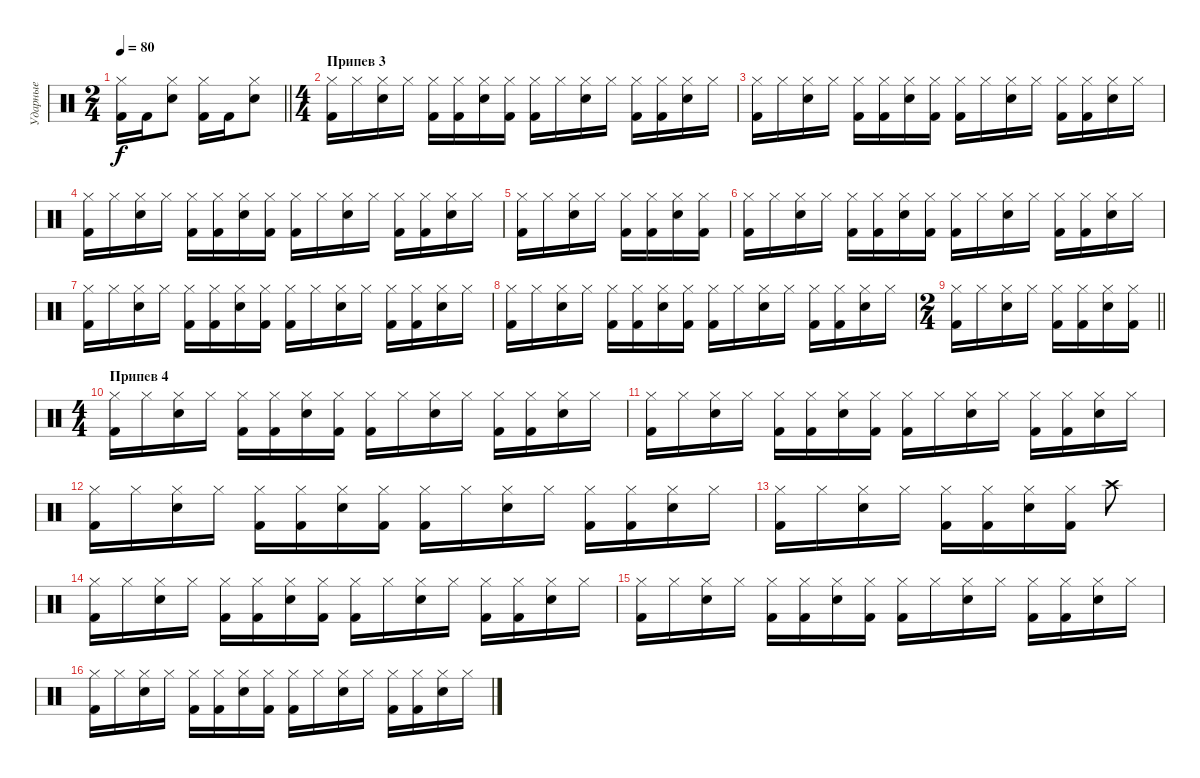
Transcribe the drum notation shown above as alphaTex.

\track ("Ударные" "Ударные") {instrument percussion}
\staff {score}
\articulation defaults
\ts (2 4)
\tempo 80
\clef neutral
\barLineRight lightlight
\ks c
("Hi-Hat (closed)" "Kick (hit) 2").16{dy f} "Kick (hit) 2".16 ("Electric Snare (hit)" "Hi-Hat (closed)").8 ("Hi-Hat (closed)" "Kick (hit) 2").16 "Kick (hit) 2".16 ("Electric Snare (hit)" "Hi-Hat (closed)").8 |
\ts (4 4)
\section ("" "Припев 3")
("Hi-Hat (closed)" "Kick (hit) 2").16 "Hi-Hat (closed)".16 ("Hi-Hat (closed)" "Electric Snare (hit)").16 "Hi-Hat (closed)".16 ("Hi-Hat (closed)" "Kick (hit) 2").16 ("Hi-Hat (closed)" "Kick (hit) 2").16 ("Hi-Hat (closed)" "Electric Snare (hit)").16 ("Hi-Hat (closed)" "Kick (hit) 2").16 ("Hi-Hat (closed)" "Kick (hit) 2").16 "Hi-Hat (closed)".16 ("Hi-Hat (closed)" "Electric Snare (hit)").16 "Hi-Hat (closed)".16 ("Hi-Hat (closed)" "Kick (hit) 2").16 ("Hi-Hat (closed)" "Kick (hit) 2").16 ("Hi-Hat (closed)" "Electric Snare (hit)").16 "Hi-Hat (closed)".16 |
("Hi-Hat (closed)" "Kick (hit) 2").16 "Hi-Hat (closed)".16 ("Hi-Hat (closed)" "Electric Snare (hit)").16 "Hi-Hat (closed)".16 ("Hi-Hat (closed)" "Kick (hit) 2").16 ("Hi-Hat (closed)" "Kick (hit) 2").16 ("Hi-Hat (closed)" "Electric Snare (hit)").16 ("Hi-Hat (closed)" "Kick (hit) 2").16 ("Hi-Hat (closed)" "Kick (hit) 2").16 "Hi-Hat (closed)".16 ("Hi-Hat (closed)" "Electric Snare (hit)").16 "Hi-Hat (closed)".16 ("Hi-Hat (closed)" "Kick (hit) 2").16 ("Hi-Hat (closed)" "Kick (hit) 2").16 ("Hi-Hat (closed)" "Electric Snare (hit)").16 "Hi-Hat (closed)".16 |
("Hi-Hat (closed)" "Kick (hit) 2").16 "Hi-Hat (closed)".16 ("Hi-Hat (closed)" "Electric Snare (hit)").16 "Hi-Hat (closed)".16 ("Hi-Hat (closed)" "Kick (hit) 2").16 ("Hi-Hat (closed)" "Kick (hit) 2").16 ("Hi-Hat (closed)" "Electric Snare (hit)").16 ("Hi-Hat (closed)" "Kick (hit) 2").16 ("Hi-Hat (closed)" "Kick (hit) 2").16 "Hi-Hat (closed)".16 ("Hi-Hat (closed)" "Electric Snare (hit)").16 "Hi-Hat (closed)".16 ("Hi-Hat (closed)" "Kick (hit) 2").16 ("Hi-Hat (closed)" "Kick (hit) 2").16 ("Hi-Hat (closed)" "Electric Snare (hit)").16 "Hi-Hat (closed)".16 |
("Hi-Hat (closed)" "Kick (hit) 2").16 "Hi-Hat (closed)".16 ("Hi-Hat (closed)" "Electric Snare (hit)").16 "Hi-Hat (closed)".16 ("Hi-Hat (closed)" "Kick (hit) 2").16 ("Hi-Hat (closed)" "Kick (hit) 2").16 ("Hi-Hat (closed)" "Electric Snare (hit)").16 ("Hi-Hat (closed)" "Kick (hit) 2").16 |
("Hi-Hat (closed)" "Kick (hit) 2").16 "Hi-Hat (closed)".16 ("Hi-Hat (closed)" "Electric Snare (hit)").16 "Hi-Hat (closed)".16 ("Hi-Hat (closed)" "Kick (hit) 2").16 ("Hi-Hat (closed)" "Kick (hit) 2").16 ("Hi-Hat (closed)" "Electric Snare (hit)").16 ("Hi-Hat (closed)" "Kick (hit) 2").16 ("Hi-Hat (closed)" "Kick (hit) 2").16 "Hi-Hat (closed)".16 ("Hi-Hat (closed)" "Electric Snare (hit)").16 "Hi-Hat (closed)".16 ("Hi-Hat (closed)" "Kick (hit) 2").16 ("Hi-Hat (closed)" "Kick (hit) 2").16 ("Hi-Hat (closed)" "Electric Snare (hit)").16 "Hi-Hat (closed)".16 |
("Hi-Hat (closed)" "Kick (hit) 2").16 "Hi-Hat (closed)".16 ("Hi-Hat (closed)" "Electric Snare (hit)").16 "Hi-Hat (closed)".16 ("Hi-Hat (closed)" "Kick (hit) 2").16 ("Hi-Hat (closed)" "Kick (hit) 2").16 ("Hi-Hat (closed)" "Electric Snare (hit)").16 ("Hi-Hat (closed)" "Kick (hit) 2").16 ("Hi-Hat (closed)" "Kick (hit) 2").16 "Hi-Hat (closed)".16 ("Hi-Hat (closed)" "Electric Snare (hit)").16 "Hi-Hat (closed)".16 ("Hi-Hat (closed)" "Kick (hit) 2").16 ("Hi-Hat (closed)" "Kick (hit) 2").16 ("Hi-Hat (closed)" "Electric Snare (hit)").16 "Hi-Hat (closed)".16 |
("Hi-Hat (closed)" "Kick (hit) 2").16 "Hi-Hat (closed)".16 ("Hi-Hat (closed)" "Electric Snare (hit)").16 "Hi-Hat (closed)".16 ("Hi-Hat (closed)" "Kick (hit) 2").16 ("Hi-Hat (closed)" "Kick (hit) 2").16 ("Hi-Hat (closed)" "Electric Snare (hit)").16 ("Hi-Hat (closed)" "Kick (hit) 2").16 ("Hi-Hat (closed)" "Kick (hit) 2").16 "Hi-Hat (closed)".16 ("Hi-Hat (closed)" "Electric Snare (hit)").16 "Hi-Hat (closed)".16 ("Hi-Hat (closed)" "Kick (hit) 2").16 ("Hi-Hat (closed)" "Kick (hit) 2").16 ("Hi-Hat (closed)" "Electric Snare (hit)").16 "Hi-Hat (closed)".16 |
\ts (2 4)
\barLineRight lightlight
("Hi-Hat (closed)" "Kick (hit) 2").16 "Hi-Hat (closed)".16 ("Hi-Hat (closed)" "Electric Snare (hit)").16 "Hi-Hat (closed)".16 ("Hi-Hat (closed)" "Kick (hit) 2").16 ("Hi-Hat (closed)" "Kick (hit) 2").16 ("Hi-Hat (closed)" "Electric Snare (hit)").16 ("Hi-Hat (closed)" "Kick (hit) 2").16 |
\ts (4 4)
\section ("" "Припев 4")
("Hi-Hat (closed)" "Kick (hit) 2").16 "Hi-Hat (closed)".16 ("Hi-Hat (closed)" "Electric Snare (hit)").16 "Hi-Hat (closed)".16 ("Hi-Hat (closed)" "Kick (hit) 2").16 ("Hi-Hat (closed)" "Kick (hit) 2").16 ("Hi-Hat (closed)" "Electric Snare (hit)").16 ("Hi-Hat (closed)" "Kick (hit) 2").16 ("Hi-Hat (closed)" "Kick (hit) 2").16 "Hi-Hat (closed)".16 ("Hi-Hat (closed)" "Electric Snare (hit)").16 "Hi-Hat (closed)".16 ("Hi-Hat (closed)" "Kick (hit) 2").16 ("Hi-Hat (closed)" "Kick (hit) 2").16 ("Hi-Hat (closed)" "Electric Snare (hit)").16 "Hi-Hat (closed)".16 |
("Hi-Hat (closed)" "Kick (hit) 2").16 "Hi-Hat (closed)".16 ("Hi-Hat (closed)" "Electric Snare (hit)").16 "Hi-Hat (closed)".16 ("Hi-Hat (closed)" "Kick (hit) 2").16 ("Hi-Hat (closed)" "Kick (hit) 2").16 ("Hi-Hat (closed)" "Electric Snare (hit)").16 ("Hi-Hat (closed)" "Kick (hit) 2").16 ("Hi-Hat (closed)" "Kick (hit) 2").16 "Hi-Hat (closed)".16 ("Hi-Hat (closed)" "Electric Snare (hit)").16 "Hi-Hat (closed)".16 ("Hi-Hat (closed)" "Kick (hit) 2").16 ("Hi-Hat (closed)" "Kick (hit) 2").16 ("Hi-Hat (closed)" "Electric Snare (hit)").16 "Hi-Hat (closed)".16 |
("Hi-Hat (closed)" "Kick (hit) 2").16 "Hi-Hat (closed)".16 ("Hi-Hat (closed)" "Electric Snare (hit)").16 "Hi-Hat (closed)".16 ("Hi-Hat (closed)" "Kick (hit) 2").16 ("Hi-Hat (closed)" "Kick (hit) 2").16 ("Hi-Hat (closed)" "Electric Snare (hit)").16 ("Hi-Hat (closed)" "Kick (hit) 2").16 ("Hi-Hat (closed)" "Kick (hit) 2").16 "Hi-Hat (closed)".16 ("Hi-Hat (closed)" "Electric Snare (hit)").16 "Hi-Hat (closed)".16 ("Hi-Hat (closed)" "Kick (hit) 2").16 ("Hi-Hat (closed)" "Kick (hit) 2").16 ("Hi-Hat (closed)" "Electric Snare (hit)").16 "Hi-Hat (closed)".16 |
("Hi-Hat (closed)" "Kick (hit) 2").16 "Hi-Hat (closed)".16 ("Hi-Hat (closed)" "Electric Snare (hit)").16 "Hi-Hat (closed)".16 ("Hi-Hat (closed)" "Kick (hit) 2").16 ("Hi-Hat (closed)" "Kick (hit) 2").16 ("Hi-Hat (closed)" "Electric Snare (hit)").16 ("Hi-Hat (closed)" "Kick (hit) 2").16 "Crash high (hit)".8 |
("Hi-Hat (closed)" "Kick (hit) 2").16 "Hi-Hat (closed)".16 ("Hi-Hat (closed)" "Electric Snare (hit)").16 "Hi-Hat (closed)".16 ("Hi-Hat (closed)" "Kick (hit) 2").16 ("Hi-Hat (closed)" "Kick (hit) 2").16 ("Hi-Hat (closed)" "Electric Snare (hit)").16 ("Hi-Hat (closed)" "Kick (hit) 2").16 ("Hi-Hat (closed)" "Kick (hit) 2").16 "Hi-Hat (closed)".16 ("Hi-Hat (closed)" "Electric Snare (hit)").16 "Hi-Hat (closed)".16 ("Hi-Hat (closed)" "Kick (hit) 2").16 ("Hi-Hat (closed)" "Kick (hit) 2").16 ("Hi-Hat (closed)" "Electric Snare (hit)").16 "Hi-Hat (closed)".16 |
("Hi-Hat (closed)" "Kick (hit) 2").16 "Hi-Hat (closed)".16 ("Hi-Hat (closed)" "Electric Snare (hit)").16 "Hi-Hat (closed)".16 ("Hi-Hat (closed)" "Kick (hit) 2").16 ("Hi-Hat (closed)" "Kick (hit) 2").16 ("Hi-Hat (closed)" "Electric Snare (hit)").16 ("Hi-Hat (closed)" "Kick (hit) 2").16 ("Hi-Hat (closed)" "Kick (hit) 2").16 "Hi-Hat (closed)".16 ("Hi-Hat (closed)" "Electric Snare (hit)").16 "Hi-Hat (closed)".16 ("Hi-Hat (closed)" "Kick (hit) 2").16 ("Hi-Hat (closed)" "Kick (hit) 2").16 ("Hi-Hat (closed)" "Electric Snare (hit)").16 "Hi-Hat (closed)".16 |
("Hi-Hat (closed)" "Kick (hit) 2").16 "Hi-Hat (closed)".16 ("Hi-Hat (closed)" "Electric Snare (hit)").16 "Hi-Hat (closed)".16 ("Hi-Hat (closed)" "Kick (hit) 2").16 ("Hi-Hat (closed)" "Kick (hit) 2").16 ("Hi-Hat (closed)" "Electric Snare (hit)").16 ("Hi-Hat (closed)" "Kick (hit) 2").16 ("Hi-Hat (closed)" "Kick (hit) 2").16 "Hi-Hat (closed)".16 ("Hi-Hat (closed)" "Electric Snare (hit)").16 "Hi-Hat (closed)".16 ("Hi-Hat (closed)" "Kick (hit) 2").16 ("Hi-Hat (closed)" "Kick (hit) 2").16 ("Hi-Hat (closed)" "Electric Snare (hit)").16 "Hi-Hat (closed)".16
